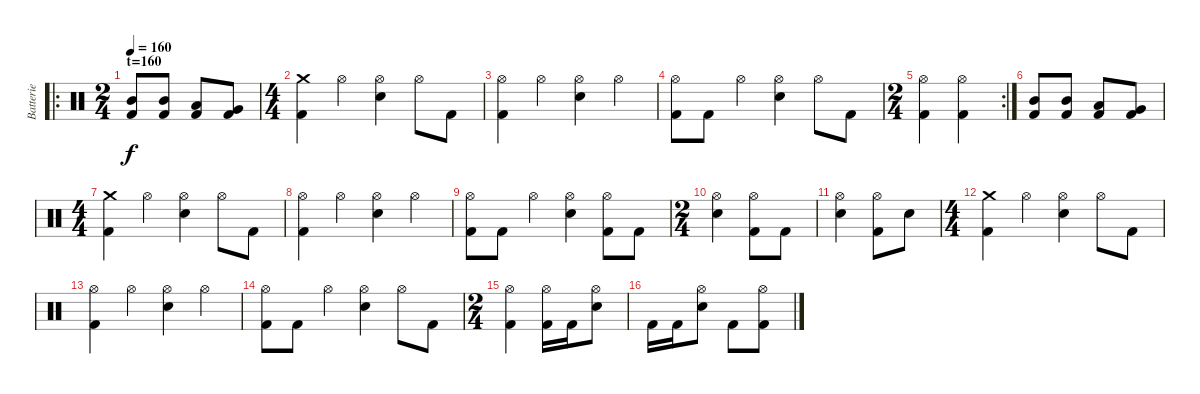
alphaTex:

\track ("Batterie" "Batterie") {instrument percussion}
\staff {score}
\articulation defaults
\ro
\ts (2 4)
\section ("" "t=160")
\tempo 160
\clef neutral
\ks c
("Mid Tom (hit)" "Kick (hit) 2").8{dy f} ("Mid Tom (hit)" "Kick (hit) 2").8 ("Low Tom (hit)" "Kick (hit) 2").8 ("Very Low Tom (hit)" "Kick (hit) 2").8 |
\ts (4 4)
("Crash medium (hit)" "Kick (hit) 2").4 "Hi-Hat (open)".4 ("Hi-Hat (open)" "Electric Snare (hit)").4 "Hi-Hat (open)".8 "Kick (hit) 2".8 |
("Hi-Hat (open)" "Kick (hit) 2").4 "Hi-Hat (open)".4 ("Hi-Hat (open)" "Electric Snare (hit)").4 "Hi-Hat (open)".4 |
("Hi-Hat (open)" "Kick (hit) 2").8 "Kick (hit) 2".8 "Hi-Hat (open)".4 ("Hi-Hat (open)" "Electric Snare (hit)").4 "Hi-Hat (open)".8 "Kick (hit) 2".8 |
\rc 2
\ts (2 4)
("Hi-Hat (open)" "Kick (hit) 2").4 ("Hi-Hat (open)" "Kick (hit) 2").4 |
("Mid Tom (hit)" "Kick (hit) 2").8 ("Mid Tom (hit)" "Kick (hit) 2").8 ("Low Tom (hit)" "Kick (hit) 2").8 ("Very Low Tom (hit)" "Kick (hit) 2").8 |
\ts (4 4)
("Crash medium (hit)" "Kick (hit) 2").4 "Hi-Hat (open)".4 ("Hi-Hat (open)" "Electric Snare (hit)").4 "Hi-Hat (open)".8 "Kick (hit) 2".8 |
("Hi-Hat (open)" "Kick (hit) 2").4 "Hi-Hat (open)".4 ("Hi-Hat (open)" "Electric Snare (hit)").4 "Hi-Hat (open)".4 |
("Hi-Hat (open)" "Kick (hit) 2").8 "Kick (hit) 2".8 "Hi-Hat (open)".4 ("Hi-Hat (open)" "Electric Snare (hit)").4 ("Hi-Hat (open)" "Kick (hit) 2").8 "Kick (hit) 2".8 |
\ts (2 4)
("Hi-Hat (open)" "Electric Snare (hit)").4 ("Hi-Hat (open)" "Kick (hit) 2").8 "Kick (hit) 2".8 |
("Hi-Hat (open)" "Electric Snare (hit)").4 ("Hi-Hat (open)" "Kick (hit) 2").8 "Electric Snare (hit)".8 |
\ts (4 4)
("Crash medium (hit)" "Kick (hit) 2").4 "Hi-Hat (open)".4 ("Hi-Hat (open)" "Electric Snare (hit)").4 "Hi-Hat (open)".8 "Kick (hit) 2".8 |
("Hi-Hat (open)" "Kick (hit) 2").4 "Hi-Hat (open)".4 ("Hi-Hat (open)" "Electric Snare (hit)").4 "Hi-Hat (open)".4 |
("Hi-Hat (open)" "Kick (hit) 2").8 "Kick (hit) 2".8 "Hi-Hat (open)".4 ("Hi-Hat (open)" "Electric Snare (hit)").4 "Hi-Hat (open)".8 "Kick (hit) 2".8 |
\ts (2 4)
("Hi-Hat (open)" "Kick (hit) 2").4 ("Hi-Hat (open)" "Kick (hit) 2").16 "Kick (hit) 2".16 ("Hi-Hat (open)" "Electric Snare (hit)").8 |
"Kick (hit) 2".16 "Kick (hit) 2".16 ("Hi-Hat (open)" "Electric Snare (hit)").8 "Kick (hit) 2".8 ("Hi-Hat (open)" "Kick (hit) 2").8
